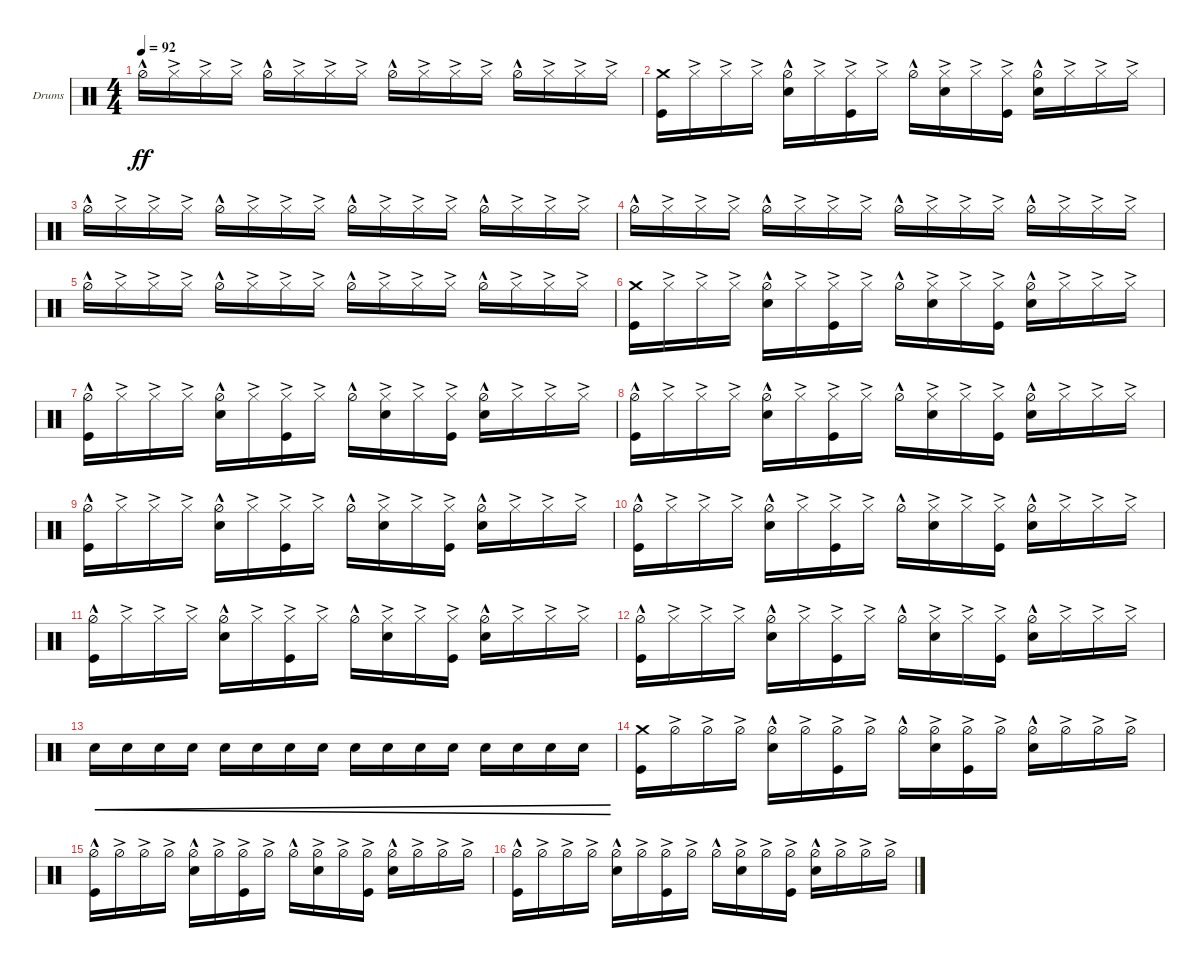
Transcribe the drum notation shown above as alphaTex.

\defaultSystemsLayout 4
\bracketExtendMode groupsimilarinstruments
\firstSystemTrackNameOrientation horizontal
\otherSystemsTrackNameOrientation horizontal
\track ("Drumkit" "Drums") {instrument percussion}
\staff {score}
\articulation defaults
\ts (4 4)
\tempo 92
\clef neutral
\ks c "Hi-Hat (half)"{hac}.16{dy ff} "Hi-Hat (closed)"{ac}.16 "Hi-Hat (closed)"{ac}.16 "Hi-Hat (closed)"{ac}.16 "Hi-Hat (half)"{hac}.16 "Hi-Hat (closed)"{ac}.16 "Hi-Hat (closed)"{ac}.16 "Hi-Hat (closed)"{ac}.16 "Hi-Hat (half)"{hac}.16 "Hi-Hat (closed)"{ac}.16 "Hi-Hat (closed)"{ac}.16 "Hi-Hat (closed)"{ac}.16 "Hi-Hat (half)"{hac}.16 "Hi-Hat (closed)"{ac}.16 "Hi-Hat (closed)"{ac}.16 "Hi-Hat (closed)"{ac}.16
|
("Kick (hit)" "Crash medium (hit)").16 "Hi-Hat (closed)"{ac}.16 "Hi-Hat (closed)"{ac}.16 "Hi-Hat (closed)"{ac}.16 ("Hi-Hat (half)"{hac} "Snare (hit) 2").16 "Hi-Hat (closed)"{ac}.16 ("Hi-Hat (closed)"{ac} "Kick (hit)").16 "Hi-Hat (closed)"{ac}.16 "Hi-Hat (half)"{hac}.16 ("Hi-Hat (closed)"{ac} "Snare (hit) 2").16 "Hi-Hat (closed)"{ac}.16 ("Hi-Hat (closed)"{ac} "Kick (hit)").16 ("Hi-Hat (half)"{hac} "Snare (hit) 2").16 "Hi-Hat (closed)"{ac}.16 "Hi-Hat (closed)"{ac}.16 "Hi-Hat (closed)"{ac}.16 |
"Hi-Hat (half)"{hac}.16 "Hi-Hat (closed)"{ac}.16 "Hi-Hat (closed)"{ac}.16 "Hi-Hat (closed)"{ac}.16 "Hi-Hat (half)"{hac}.16 "Hi-Hat (closed)"{ac}.16 "Hi-Hat (closed)"{ac}.16 "Hi-Hat (closed)"{ac}.16 "Hi-Hat (half)"{hac}.16 "Hi-Hat (closed)"{ac}.16 "Hi-Hat (closed)"{ac}.16 "Hi-Hat (closed)"{ac}.16 "Hi-Hat (half)"{hac}.16 "Hi-Hat (closed)"{ac}.16 "Hi-Hat (closed)"{ac}.16 "Hi-Hat (closed)"{ac}.16 |
"Hi-Hat (half)"{hac}.16 "Hi-Hat (closed)"{ac}.16 "Hi-Hat (closed)"{ac}.16 "Hi-Hat (closed)"{ac}.16 "Hi-Hat (half)"{hac}.16 "Hi-Hat (closed)"{ac}.16 "Hi-Hat (closed)"{ac}.16 "Hi-Hat (closed)"{ac}.16 "Hi-Hat (half)"{hac}.16 "Hi-Hat (closed)"{ac}.16 "Hi-Hat (closed)"{ac}.16 "Hi-Hat (closed)"{ac}.16 "Hi-Hat (half)"{hac}.16 "Hi-Hat (closed)"{ac}.16 "Hi-Hat (closed)"{ac}.16 "Hi-Hat (closed)"{ac}.16 |
"Hi-Hat (half)"{hac}.16 "Hi-Hat (closed)"{ac}.16 "Hi-Hat (closed)"{ac}.16 "Hi-Hat (closed)"{ac}.16 "Hi-Hat (half)"{hac}.16 "Hi-Hat (closed)"{ac}.16 "Hi-Hat (closed)"{ac}.16 "Hi-Hat (closed)"{ac}.16 "Hi-Hat (half)"{hac}.16 "Hi-Hat (closed)"{ac}.16 "Hi-Hat (closed)"{ac}.16 "Hi-Hat (closed)"{ac}.16 "Hi-Hat (half)"{hac}.16 "Hi-Hat (closed)"{ac}.16 "Hi-Hat (closed)"{ac}.16 "Hi-Hat (closed)"{ac}.16 |
("Kick (hit)" "Crash medium (hit)").16 "Hi-Hat (closed)"{ac}.16 "Hi-Hat (closed)"{ac}.16 "Hi-Hat (closed)"{ac}.16 ("Hi-Hat (half)"{hac} "Snare (hit) 2").16 "Hi-Hat (closed)"{ac}.16 ("Hi-Hat (closed)"{ac} "Kick (hit)").16 "Hi-Hat (closed)"{ac}.16 "Hi-Hat (half)"{hac}.16 ("Hi-Hat (closed)"{ac} "Snare (hit) 2").16 "Hi-Hat (closed)"{ac}.16 ("Hi-Hat (closed)"{ac} "Kick (hit)").16 ("Hi-Hat (half)"{hac} "Snare (hit) 2").16 "Hi-Hat (closed)"{ac}.16 "Hi-Hat (closed)"{ac}.16 "Hi-Hat (closed)"{ac}.16 |
("Kick (hit)" "Hi-Hat (half)"{hac}).16 "Hi-Hat (closed)"{ac}.16 "Hi-Hat (closed)"{ac}.16 "Hi-Hat (closed)"{ac}.16 ("Hi-Hat (half)"{hac} "Snare (hit) 2").16 "Hi-Hat (closed)"{ac}.16 ("Hi-Hat (closed)"{ac} "Kick (hit)").16 "Hi-Hat (closed)"{ac}.16 "Hi-Hat (half)"{hac}.16 ("Hi-Hat (closed)"{ac} "Snare (hit) 2").16 "Hi-Hat (closed)"{ac}.16 ("Hi-Hat (closed)"{ac} "Kick (hit)").16 ("Hi-Hat (half)"{hac} "Snare (hit) 2").16 "Hi-Hat (closed)"{ac}.16 "Hi-Hat (closed)"{ac}.16 "Hi-Hat (closed)"{ac}.16 |
("Kick (hit)" "Hi-Hat (half)"{hac}).16 "Hi-Hat (closed)"{ac}.16 "Hi-Hat (closed)"{ac}.16 "Hi-Hat (closed)"{ac}.16 ("Hi-Hat (half)"{hac} "Snare (hit) 2").16 "Hi-Hat (closed)"{ac}.16 ("Hi-Hat (closed)"{ac} "Kick (hit)").16 "Hi-Hat (closed)"{ac}.16 "Hi-Hat (half)"{hac}.16 ("Hi-Hat (closed)"{ac} "Snare (hit) 2").16 "Hi-Hat (closed)"{ac}.16 ("Hi-Hat (closed)"{ac} "Kick (hit)").16 ("Hi-Hat (half)"{hac} "Snare (hit) 2").16 "Hi-Hat (closed)"{ac}.16 "Hi-Hat (closed)"{ac}.16 "Hi-Hat (closed)"{ac}.16 |
("Kick (hit)" "Hi-Hat (half)"{hac}).16 "Hi-Hat (closed)"{ac}.16 "Hi-Hat (closed)"{ac}.16 "Hi-Hat (closed)"{ac}.16 ("Hi-Hat (half)"{hac} "Snare (hit) 2").16 "Hi-Hat (closed)"{ac}.16 ("Hi-Hat (closed)"{ac} "Kick (hit)").16 "Hi-Hat (closed)"{ac}.16 "Hi-Hat (half)"{hac}.16 ("Hi-Hat (closed)"{ac} "Snare (hit) 2").16 "Hi-Hat (closed)"{ac}.16 ("Hi-Hat (closed)"{ac} "Kick (hit)").16 ("Hi-Hat (half)"{hac} "Snare (hit) 2").16 "Hi-Hat (closed)"{ac}.16 "Hi-Hat (closed)"{ac}.16 "Hi-Hat (closed)"{ac}.16 |
("Kick (hit)" "Hi-Hat (half)"{hac}).16 "Hi-Hat (closed)"{ac}.16 "Hi-Hat (closed)"{ac}.16 "Hi-Hat (closed)"{ac}.16 ("Hi-Hat (half)"{hac} "Snare (hit) 2").16 "Hi-Hat (closed)"{ac}.16 ("Hi-Hat (closed)"{ac} "Kick (hit)").16 "Hi-Hat (closed)"{ac}.16 "Hi-Hat (half)"{hac}.16 ("Hi-Hat (closed)"{ac} "Snare (hit) 2").16 "Hi-Hat (closed)"{ac}.16 ("Hi-Hat (closed)"{ac} "Kick (hit)").16 ("Hi-Hat (half)"{hac} "Snare (hit) 2").16 "Hi-Hat (closed)"{ac}.16 "Hi-Hat (closed)"{ac}.16 "Hi-Hat (closed)"{ac}.16 |
("Kick (hit)" "Hi-Hat (half)"{hac}).16 "Hi-Hat (closed)"{ac}.16 "Hi-Hat (closed)"{ac}.16 "Hi-Hat (closed)"{ac}.16 ("Hi-Hat (half)"{hac} "Snare (hit) 2").16 "Hi-Hat (closed)"{ac}.16 ("Hi-Hat (closed)"{ac} "Kick (hit)").16 "Hi-Hat (closed)"{ac}.16 "Hi-Hat (half)"{hac}.16 ("Hi-Hat (closed)"{ac} "Snare (hit) 2").16 "Hi-Hat (closed)"{ac}.16 ("Hi-Hat (closed)"{ac} "Kick (hit)").16 ("Hi-Hat (half)"{hac} "Snare (hit) 2").16 "Hi-Hat (closed)"{ac}.16 "Hi-Hat (closed)"{ac}.16 "Hi-Hat (closed)"{ac}.16 |
("Kick (hit)" "Hi-Hat (half)"{hac}).16 "Hi-Hat (closed)"{ac}.16 "Hi-Hat (closed)"{ac}.16 "Hi-Hat (closed)"{ac}.16 ("Hi-Hat (half)"{hac} "Snare (hit) 2").16 "Hi-Hat (closed)"{ac}.16 ("Hi-Hat (closed)"{ac} "Kick (hit)").16 "Hi-Hat (closed)"{ac}.16 "Hi-Hat (half)"{hac}.16 ("Hi-Hat (closed)"{ac} "Snare (hit) 2").16 "Hi-Hat (closed)"{ac}.16 ("Hi-Hat (closed)"{ac} "Kick (hit)").16 ("Hi-Hat (half)"{hac} "Snare (hit) 2").16 "Hi-Hat (closed)"{ac}.16 "Hi-Hat (closed)"{ac}.16 "Hi-Hat (closed)"{ac}.16 |
"Snare (hit) 2".16{cre} "Snare (hit) 2".16{cre} "Snare (hit) 2".16{cre} "Snare (hit) 2".16{cre} "Snare (hit) 2".16{cre} "Snare (hit) 2".16{cre} "Snare (hit) 2".16{cre} "Snare (hit) 2".16{cre} "Snare (hit) 2".16{cre} "Snare (hit) 2".16{cre} "Snare (hit) 2".16{cre} "Snare (hit) 2".16{cre} "Snare (hit) 2".16{cre} "Snare (hit) 2".16{cre} "Snare (hit) 2".16{cre} "Snare (hit) 2".16{cre} |
("Kick (hit)" "Crash medium (hit)").16 "Hi-Hat (half)"{ac}.16 "Hi-Hat (half)"{ac}.16 "Hi-Hat (half)"{ac}.16 ("Hi-Hat (half)"{hac} "Snare (hit) 2").16 "Hi-Hat (half)"{ac}.16 ("Hi-Hat (half)"{ac} "Kick (hit)").16 "Hi-Hat (half)"{ac}.16 "Hi-Hat (half)"{hac}.16 ("Hi-Hat (half)"{ac} "Snare (hit) 2").16 ("Hi-Hat (half)"{ac} "Kick (hit)").16 "Hi-Hat (half)"{ac}.16 ("Hi-Hat (half)"{hac} "Snare (hit) 2").16 "Hi-Hat (half)"{ac}.16 "Hi-Hat (half)"{ac}.16 "Hi-Hat (half)"{ac}.16 |
("Kick (hit)" "Hi-Hat (half)"{hac}).16 "Hi-Hat (half)"{ac}.16 "Hi-Hat (half)"{ac}.16 "Hi-Hat (half)"{ac}.16 ("Hi-Hat (half)"{hac} "Snare (hit) 2").16 "Hi-Hat (half)"{ac}.16 ("Hi-Hat (half)"{ac} "Kick (hit)").16 "Hi-Hat (half)"{ac}.16 "Hi-Hat (half)"{hac}.16 ("Hi-Hat (half)"{ac} "Snare (hit) 2").16 "Hi-Hat (half)"{ac}.16 ("Hi-Hat (half)"{ac} "Kick (hit)").16 ("Hi-Hat (half)"{hac} "Snare (hit) 2").16 "Hi-Hat (half)"{ac}.16 "Hi-Hat (half)"{ac}.16 "Hi-Hat (half)"{ac}.16 |
("Kick (hit)" "Hi-Hat (half)"{hac}).16 "Hi-Hat (half)"{ac}.16 "Hi-Hat (half)"{ac}.16 "Hi-Hat (half)"{ac}.16 ("Hi-Hat (half)"{hac} "Snare (hit) 2").16 "Hi-Hat (half)"{ac}.16 ("Hi-Hat (half)"{ac} "Kick (hit)").16 "Hi-Hat (half)"{ac}.16 "Hi-Hat (half)"{hac}.16 ("Hi-Hat (half)"{ac} "Snare (hit) 2").16 "Hi-Hat (half)"{ac}.16 ("Hi-Hat (half)"{ac} "Kick (hit)").16 ("Hi-Hat (half)"{hac} "Snare (hit) 2").16 "Hi-Hat (half)"{ac}.16 "Hi-Hat (half)"{ac}.16 "Hi-Hat (half)"{ac}.16
